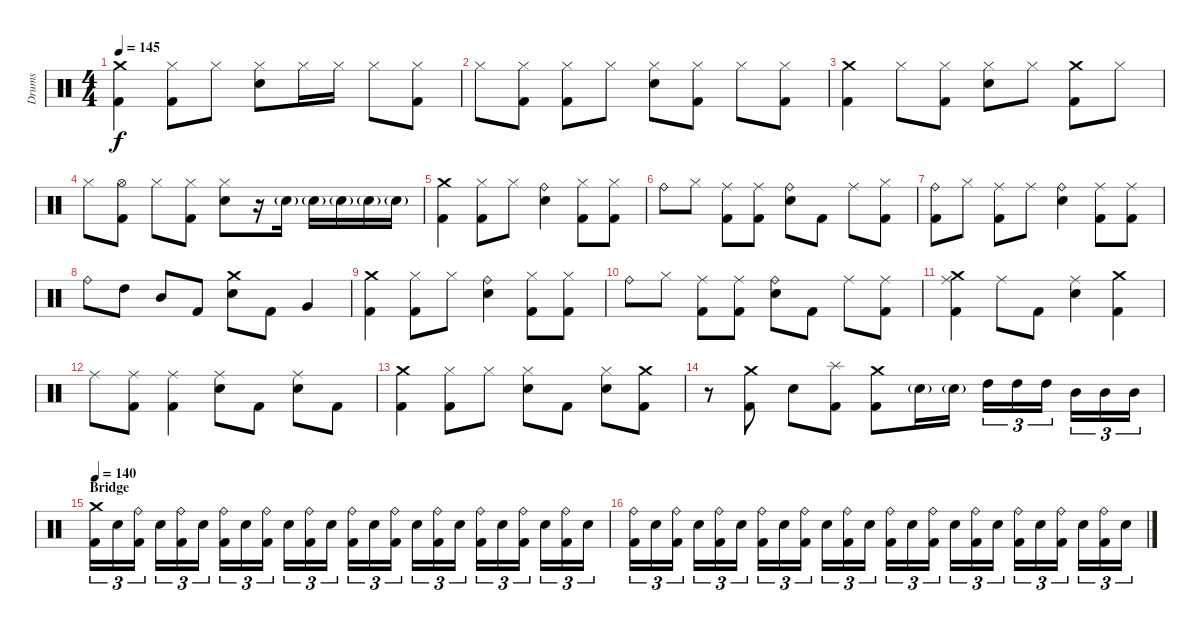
\track ("Drums" "Drums") {instrument percussion}
\staff {score}
\articulation defaults
\ts (4 4)
\tempo 145
\clef neutral
\ks c
("Crash medium (hit)" "Kick (hit) 2").4{dy f} ("Hi-Hat (closed)" "Kick (hit) 2").8 "Hi-Hat (closed)".8 ("Hi-Hat (closed)" "Snare (hit) 2").8 "Hi-Hat (closed)".16 "Hi-Hat (closed)".16 "Hi-Hat (closed)".8 ("Hi-Hat (closed)" "Kick (hit) 2").8 |
"Hi-Hat (closed)".8 ("Hi-Hat (closed)" "Kick (hit) 2").8 ("Hi-Hat (closed)" "Kick (hit) 2").8 "Hi-Hat (closed)".8 ("Hi-Hat (closed)" "Snare (hit) 2").8 ("Hi-Hat (closed)" "Kick (hit) 2").8 "Hi-Hat (closed)".8 ("Hi-Hat (closed)" "Kick (hit) 2").8 |
("Crash medium (hit)" "Kick (hit) 2").4 "Hi-Hat (closed)".8 ("Hi-Hat (closed)" "Kick (hit) 2").8 ("Hi-Hat (closed)" "Snare (hit) 2").8 "Hi-Hat (closed)".8 ("Crash medium (hit)" "Kick (hit) 2").8 "Hi-Hat (closed)".8 |
"Hi-Hat (closed)".8 ("Hi-Hat (open)" "Kick (hit) 2").8 "Hi-Hat (closed)".8 ("Hi-Hat (closed)" "Kick (hit) 2").8 ("Hi-Hat (closed)" "Snare (hit) 2").8 r.16 "Snare (hit) 2"{g}.16 "Snare (hit) 2"{g}.16 "Snare (hit) 2"{g}.16 "Snare (hit) 2"{g}.16 "Snare (hit) 2"{g}.16 |
("Crash medium (hit)" "Kick (hit) 2").4 ("Hi-Hat (closed)" "Kick (hit) 2").8 "Hi-Hat (closed)".8 ("Ride (bell)" "Snare (hit) 2").4 ("Hi-Hat (closed)" "Kick (hit) 2").8 ("Hi-Hat (closed)" "Kick (hit) 2").8 |
"Ride (bell)".8 "Hi-Hat (closed)".8 ("Ride (middle)" "Kick (hit) 2").8 ("Ride (middle)" "Kick (hit) 2").8 ("Ride (bell)" "Snare (hit) 2").8 "Kick (hit) 2".8 "Ride (middle)".8 ("Hi-Hat (closed)" "Kick (hit) 2").8 |
("Ride (bell)" "Kick (hit) 2").8 "Hi-Hat (closed)".8 ("Ride (middle)" "Kick (hit) 2").8 "Ride (middle)".8 ("Ride (bell)" "Snare (hit) 2").4 ("Ride (middle)" "Kick (hit) 2").8 ("Ride (middle)" "Kick (hit) 2").8 |
"Ride (bell)".8 "High Tom (hit)".8 "Mid Tom (hit)".8 "Kick (hit) 2".8 ("Crash medium (hit)" "Snare (hit) 2").8 "Kick (hit) 2".8 "Very Low Tom (hit)".4 |
("Crash medium (hit)" "Kick (hit) 2").4 ("Hi-Hat (closed)" "Kick (hit) 2").8 "Hi-Hat (closed)".8 ("Ride (bell)" "Snare (hit) 2").4 ("Hi-Hat (closed)" "Kick (hit) 2").8 ("Hi-Hat (closed)" "Kick (hit) 2").8 |
"Ride (bell)".8 "Hi-Hat (closed)".8 ("Ride (middle)" "Kick (hit) 2").8 ("Ride (middle)" "Kick (hit) 2").8 ("Ride (bell)" "Snare (hit) 2").8 "Kick (hit) 2".8 "Ride (middle)".8 ("Ride (middle)" "Kick (hit) 2").8 |
("Crash medium (hit)" "Ride (middle)" "Kick (hit) 2").4 "Ride (middle)".8 "Kick (hit) 2".8 ("Ride (middle)" "Snare (hit) 2").4 ("Crash medium (hit)" "Kick (hit) 2").4 |
"Ride (middle)".8 ("Ride (middle)" "Kick (hit) 2").8 ("Ride (middle)" "Kick (hit) 2").4 ("Ride (middle)" "Snare (hit) 2").8 "Kick (hit) 2".8 ("Ride (middle)" "Snare (hit) 2").8 "Kick (hit) 2".8 |
("Crash medium (hit)" "Kick (hit) 2").4 ("Hi-Hat (closed)" "Kick (hit) 2").8 "Hi-Hat (closed)".8 ("Hi-Hat (closed)" "Snare (hit) 2").8 "Kick (hit) 2".8 ("Hi-Hat (closed)" "Snare (hit) 2").8 ("Crash medium (hit)" "Kick (hit) 2").8 |
r.8 ("Crash medium (hit)" "Kick (hit) 2").8 "Snare (hit) 2".8 ("Splash (hit)" "Kick (hit) 2").8 ("Crash medium (hit)" "Kick (hit) 2").8 "Snare (hit) 2"{g}.16 "Snare (hit) 2"{g}.16 "High Tom (hit)".16{tu (3 2)} "High Tom (hit)".16{tu (3 2)} "High Tom (hit)".16{tu (3 2)} "Mid Tom (hit)".16{tu (3 2)} "Mid Tom (hit)".16{tu (3 2)} "Mid Tom (hit)".16{tu (3 2)} |
\section ("" "Bridge")
\tempo 140
("Crash medium (hit)" "Kick (hit) 2").16{tu (3 2)} "Snare (hit) 2".16{tu (3 2)} ("Ride (bell)" "Kick (hit) 2").16{tu (3 2)} "Snare (hit) 2".16{tu (3 2)} ("Ride (bell)" "Kick (hit) 2").16{tu (3 2)} "Snare (hit) 2".16{tu (3 2)} ("Ride (bell)" "Kick (hit) 2").16{tu (3 2)} "Snare (hit) 2".16{tu (3 2)} ("Ride (bell)" "Kick (hit) 2").16{tu (3 2)} "Snare (hit) 2".16{tu (3 2)} ("Ride (bell)" "Kick (hit) 2").16{tu (3 2)} "Snare (hit) 2".16{tu (3 2)} ("Ride (bell)" "Kick (hit) 2").16{tu (3 2)} "Snare (hit) 2".16{tu (3 2)} ("Ride (bell)" "Kick (hit) 2").16{tu (3 2)} "Snare (hit) 2".16{tu (3 2)} ("Ride (bell)" "Kick (hit) 2").16{tu (3 2)} "Snare (hit) 2".16{tu (3 2)} ("Ride (bell)" "Kick (hit) 2").16{tu (3 2)} "Snare (hit) 2".16{tu (3 2)} ("Ride (bell)" "Kick (hit) 2").16{tu (3 2)} "Snare (hit) 2".16{tu (3 2)} ("Ride (bell)" "Kick (hit) 2").16{tu (3 2)} "Snare (hit) 2".16{tu (3 2)} |
("Ride (bell)" "Kick (hit) 2").16{tu (3 2)} "Snare (hit) 2".16{tu (3 2)} ("Ride (bell)" "Kick (hit) 2").16{tu (3 2)} "Snare (hit) 2".16{tu (3 2)} ("Ride (bell)" "Kick (hit) 2").16{tu (3 2)} "Snare (hit) 2".16{tu (3 2)} ("Ride (bell)" "Kick (hit) 2").16{tu (3 2)} "Snare (hit) 2".16{tu (3 2)} ("Ride (bell)" "Kick (hit) 2").16{tu (3 2)} "Snare (hit) 2".16{tu (3 2)} ("Ride (bell)" "Kick (hit) 2").16{tu (3 2)} "Snare (hit) 2".16{tu (3 2)} ("Ride (bell)" "Kick (hit) 2").16{tu (3 2)} "Snare (hit) 2".16{tu (3 2)} ("Ride (bell)" "Kick (hit) 2").16{tu (3 2)} "Snare (hit) 2".16{tu (3 2)} ("Ride (bell)" "Kick (hit) 2").16{tu (3 2)} "Snare (hit) 2".16{tu (3 2)} ("Ride (bell)" "Kick (hit) 2").16{tu (3 2)} "Snare (hit) 2".16{tu (3 2)} ("Ride (bell)" "Kick (hit) 2").16{tu (3 2)} "Snare (hit) 2".16{tu (3 2)} ("Ride (bell)" "Kick (hit) 2").16{tu (3 2)} "Snare (hit) 2".16{tu (3 2)}
